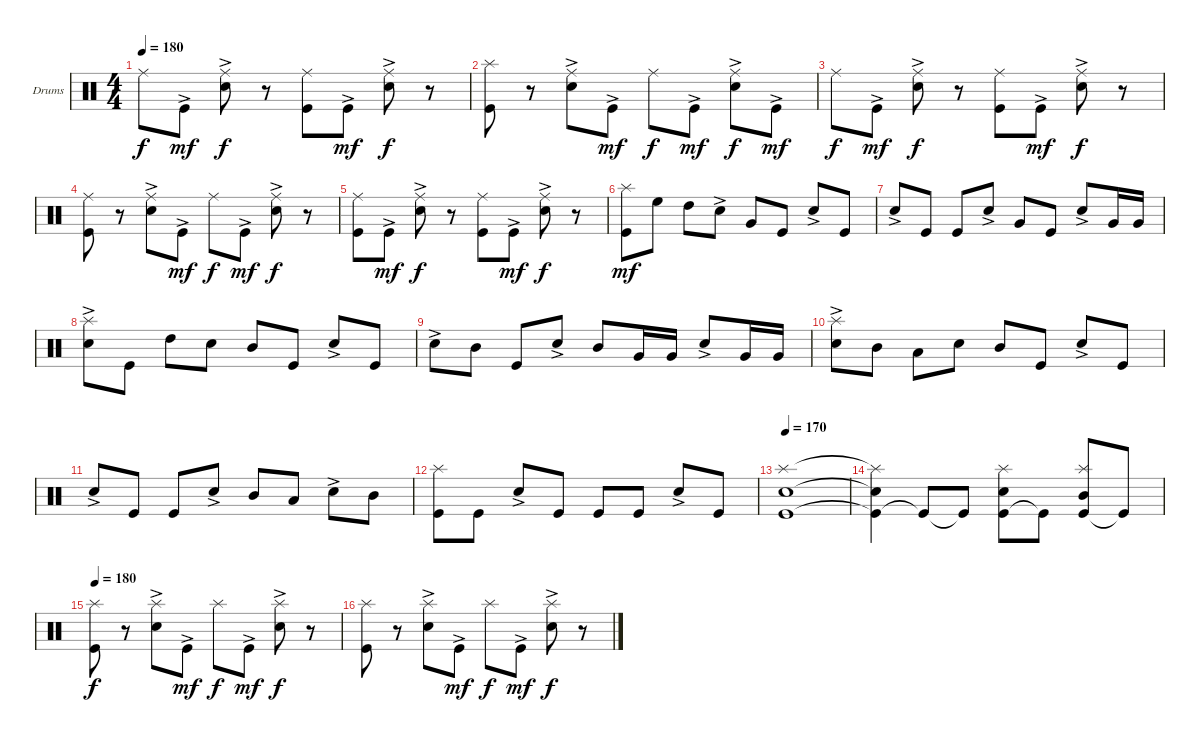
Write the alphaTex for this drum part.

\defaultSystemsLayout 4
\bracketExtendMode groupsimilarinstruments
\firstSystemTrackNameOrientation horizontal
\otherSystemsTrackNameOrientation horizontal
\track ("Drumkit" "Drums") {instrument percussion}
\staff {score}
\articulation defaults
\ts (4 4)
\tempo 180
\clef neutral
\ks c "Ride (middle)".8{dy f} "Kick (hit)"{ac}.8{dy mf}
("Snare (hit) 2"{ac} "Ride (middle)").8{dy f} r.8 ("Kick (hit)" "Ride (middle)").8 "Kick (hit)"{ac}.8{dy mf} ("Snare (hit) 2"{ac} "Ride (middle)").8{dy f} r.8 |
("Kick (hit)" "Splash (hit)").8 r.8 ("Snare (hit) 2"{ac} "Ride (middle)").8 "Kick (hit)"{ac}.8{dy mf} "Ride (middle)".8{dy f} "Kick (hit)"{ac}.8{dy mf} ("Snare (hit) 2"{ac} "Ride (middle)").8{dy f} "Kick (hit)"{ac}.8{dy mf} |
"Ride (middle)".8{dy f} "Kick (hit)"{ac}.8{dy mf} ("Snare (hit) 2"{ac} "Ride (middle)").8{dy f} r.8 ("Kick (hit)" "Ride (middle)").8 "Kick (hit)"{ac}.8{dy mf} ("Snare (hit) 2"{ac} "Ride (middle)").8{dy f} r.8 |
("Kick (hit)" "Ride (middle)").8 r.8 ("Snare (hit) 2"{ac} "Ride (middle)").8 "Kick (hit)"{ac}.8{dy mf} "Ride (middle)".8{dy f} "Kick (hit)"{ac}.8{dy mf} ("Snare (hit) 2"{ac} "Ride (middle)").8{dy f} r.8 |
("Kick (hit)" "Ride (middle)").8 "Kick (hit)"{ac}.8{dy mf} ("Snare (hit) 2"{ac} "Ride (middle)").8{dy f} r.8 ("Kick (hit)" "Ride (middle)").8 "Kick (hit)"{ac}.8{dy mf} ("Snare (hit) 2"{ac} "Ride (middle)").8{dy f} r.8 |
("Kick (hit)" "Splash (hit)").8{dy mf} "High Floor Tom (hit)".8 "High Tom (hit)".8 "Snare (hit) 2"{ac}.8 "Very Low Tom (hit)".8 "Kick (hit)".8 "Snare (hit) 2"{ac}.8 "Kick (hit)".8 |
"Snare (hit) 2"{ac}.8 "Kick (hit)".8 "Kick (hit)".8 "Snare (hit) 2"{ac}.8 "Very Low Tom (hit)".8 "Kick (hit)".8 "Snare (hit) 2"{ac}.8 "Very Low Tom (hit)".16 "Very Low Tom (hit)".16 |
("Splash (hit)" "Snare (hit) 2"{ac}).8 "Kick (hit)".8 "High Tom (hit)".8 "Snare (hit) 2".8 "Mid Tom (hit)".8 "Kick (hit)".8 "Snare (hit) 2"{ac}.8 "Kick (hit)".8 |
"Snare (hit) 2"{ac}.8 "Mid Tom (hit)".8 "Kick (hit)".8 "Snare (hit) 2"{ac}.8 "Mid Tom (hit)".8 "Very Low Tom (hit)".16 "Very Low Tom (hit)".16 "Snare (hit) 2"{ac}.8 "Very Low Tom (hit)".16 "Very Low Tom (hit)".16 |
("Snare (hit) 2"{ac} "Splash (hit)").8 "Mid Tom (hit)".8 "Low Tom (hit)".8 "Snare (hit) 2".8 "Mid Tom (hit)".8 "Kick (hit)".8 "Snare (hit) 2"{ac}.8 "Kick (hit)".8 |
"Snare (hit) 2"{ac}.8 "Kick (hit)".8 "Kick (hit)".8 "Snare (hit) 2"{ac}.8 "Mid Tom (hit)".8 "Low Tom (hit)".8 "Snare (hit) 2"{ac}.8 "Mid Tom (hit)".8 |
("Kick (hit)" "Splash (hit)").8 "Kick (hit)".8 "Snare (hit) 2"{ac}.8 "Kick (hit)".8 "Kick (hit)".8 "Kick (hit)".8 "Snare (hit) 2"{ac}.8 "Kick (hit)".8 |
\tempo (170 0.0125)
("Kick (hit)" "Snare (hit) 2" "Splash (hit)").1 |
("Kick (hit)"{t} "Snare (hit) 2"{t} "Splash (hit)"{t}).4 "Kick (hit)"{t}.8 "Kick (hit)"{t}.8 ("Kick (hit)" "Snare (hit) 2" "Splash (hit)").8 "Kick (hit)"{t}.8 ("Kick (hit)" "Splash (hit)" "Mid Tom (hit)").8 "Kick (hit)"{t}.8 |
\tempo (180 0.00625)
("Kick (hit)" "Splash (hit)").8{dy f} r.8 ("Snare (hit) 2"{ac} "Splash (hit)").8 "Kick (hit)"{ac}.8{dy mf} "Splash (hit)".8{dy f} "Kick (hit)"{ac}.8{dy mf} ("Snare (hit) 2"{ac} "Splash (hit)").8{dy f} r.8 |
("Kick (hit)" "Splash (hit)").8 r.8 ("Snare (hit) 2"{ac} "Splash (hit)").8 "Kick (hit)"{ac}.8{dy mf} "Splash (hit)".8{dy f} "Kick (hit)"{ac}.8{dy mf} ("Snare (hit) 2"{ac} "Splash (hit)").8{dy f} r.8
